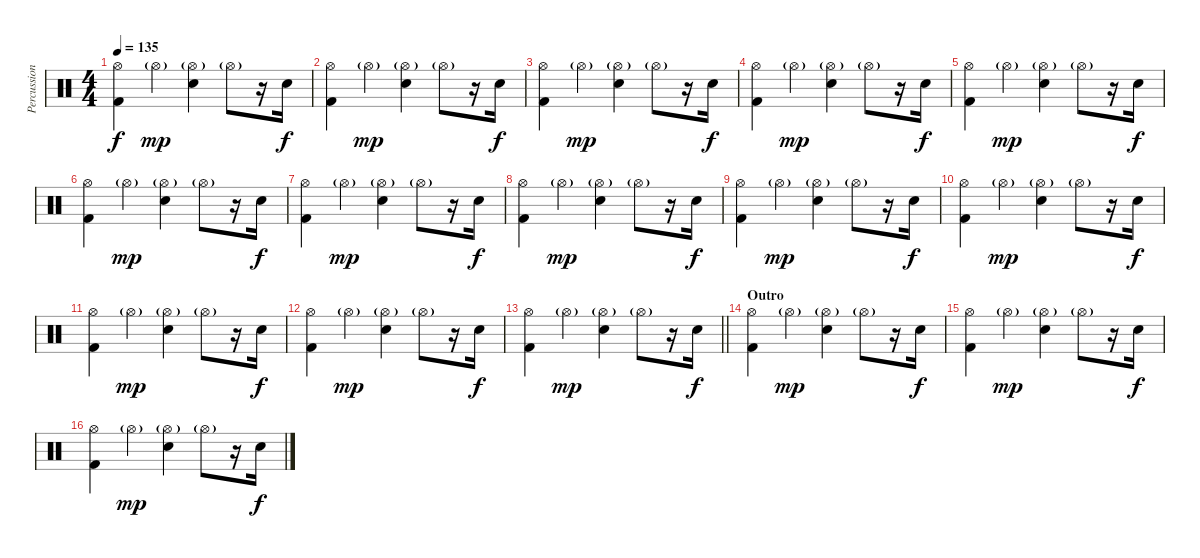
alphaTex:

\track ("Percussion" "Percussion") {instrument percussion}
\staff {score}
\articulation defaults
\ts (4 4)
\tempo 135
\clef neutral
\ks c
("Hi-Hat (open)" "Kick (hit) 2").4{dy f} "Hi-Hat (open)"{g}.4{dy mp} ("Hi-Hat (open)"{g} "Electric Snare (hit)").4 "Hi-Hat (open)"{g}.8 r.16 "Electric Snare (hit)".16{dy f} |
("Hi-Hat (open)" "Kick (hit) 2").4 "Hi-Hat (open)"{g}.4{dy mp} ("Hi-Hat (open)"{g} "Electric Snare (hit)").4 "Hi-Hat (open)"{g}.8 r.16 "Electric Snare (hit)".16{dy f} |
("Hi-Hat (open)" "Kick (hit) 2").4 "Hi-Hat (open)"{g}.4{dy mp} ("Hi-Hat (open)"{g} "Electric Snare (hit)").4 "Hi-Hat (open)"{g}.8 r.16 "Electric Snare (hit)".16{dy f} |
("Hi-Hat (open)" "Kick (hit) 2").4 "Hi-Hat (open)"{g}.4{dy mp} ("Hi-Hat (open)"{g} "Electric Snare (hit)").4 "Hi-Hat (open)"{g}.8 r.16 "Electric Snare (hit)".16{dy f} |
("Hi-Hat (open)" "Kick (hit) 2").4 "Hi-Hat (open)"{g}.4{dy mp} ("Hi-Hat (open)"{g} "Electric Snare (hit)").4 "Hi-Hat (open)"{g}.8 r.16 "Electric Snare (hit)".16{dy f} |
("Hi-Hat (open)" "Kick (hit) 2").4 "Hi-Hat (open)"{g}.4{dy mp} ("Hi-Hat (open)"{g} "Electric Snare (hit)").4 "Hi-Hat (open)"{g}.8 r.16 "Electric Snare (hit)".16{dy f} |
("Hi-Hat (open)" "Kick (hit) 2").4 "Hi-Hat (open)"{g}.4{dy mp} ("Hi-Hat (open)"{g} "Electric Snare (hit)").4 "Hi-Hat (open)"{g}.8 r.16 "Electric Snare (hit)".16{dy f} |
("Hi-Hat (open)" "Kick (hit) 2").4 "Hi-Hat (open)"{g}.4{dy mp} ("Hi-Hat (open)"{g} "Electric Snare (hit)").4 "Hi-Hat (open)"{g}.8 r.16 "Electric Snare (hit)".16{dy f} |
("Hi-Hat (open)" "Kick (hit) 2").4 "Hi-Hat (open)"{g}.4{dy mp} ("Hi-Hat (open)"{g} "Electric Snare (hit)").4 "Hi-Hat (open)"{g}.8 r.16 "Electric Snare (hit)".16{dy f} |
("Hi-Hat (open)" "Kick (hit) 2").4 "Hi-Hat (open)"{g}.4{dy mp} ("Hi-Hat (open)"{g} "Electric Snare (hit)").4 "Hi-Hat (open)"{g}.8 r.16 "Electric Snare (hit)".16{dy f} |
("Hi-Hat (open)" "Kick (hit) 2").4 "Hi-Hat (open)"{g}.4{dy mp} ("Hi-Hat (open)"{g} "Electric Snare (hit)").4 "Hi-Hat (open)"{g}.8 r.16 "Electric Snare (hit)".16{dy f} |
("Hi-Hat (open)" "Kick (hit) 2").4 "Hi-Hat (open)"{g}.4{dy mp} ("Hi-Hat (open)"{g} "Electric Snare (hit)").4 "Hi-Hat (open)"{g}.8 r.16 "Electric Snare (hit)".16{dy f} |
\barLineRight lightlight
("Hi-Hat (open)" "Kick (hit) 2").4 "Hi-Hat (open)"{g}.4{dy mp} ("Hi-Hat (open)"{g} "Electric Snare (hit)").4 "Hi-Hat (open)"{g}.8 r.16 "Electric Snare (hit)".16{dy f} |
\section ("" "Outro")
("Hi-Hat (open)" "Kick (hit) 2").4 "Hi-Hat (open)"{g}.4{dy mp} ("Hi-Hat (open)"{g} "Electric Snare (hit)").4 "Hi-Hat (open)"{g}.8 r.16 "Electric Snare (hit)".16{dy f} |
("Hi-Hat (open)" "Kick (hit) 2").4 "Hi-Hat (open)"{g}.4{dy mp} ("Hi-Hat (open)"{g} "Electric Snare (hit)").4 "Hi-Hat (open)"{g}.8 r.16 "Electric Snare (hit)".16{dy f} |
("Hi-Hat (open)" "Kick (hit) 2").4 "Hi-Hat (open)"{g}.4{dy mp} ("Hi-Hat (open)"{g} "Electric Snare (hit)").4 "Hi-Hat (open)"{g}.8 r.16 "Electric Snare (hit)".16{dy f}
